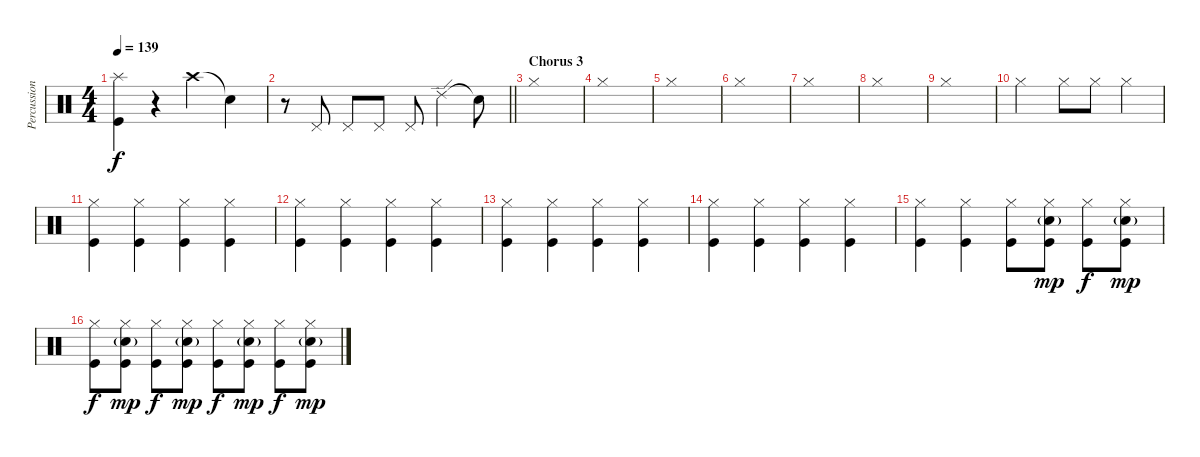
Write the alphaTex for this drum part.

\track ("Percussion" "Percussion") {instrument percussion}
\staff {score}
\articulation defaults
\ts (4 4)
\tempo 139
\clef neutral
\ks c
("Kick (hit)" "Splash (hit)").4{dy f} r.4 "Crash high (hit)".4 "Snare (hit)"{t}.4 |
\barLineRight lightlight
r.8 "Pedal Hi-Hat (hit)".8 "Pedal Hi-Hat (hit)".8 "Pedal Hi-Hat (hit)".8 "Pedal Hi-Hat (hit)".8 "Ride (edge) 2".4 "Snare (hit)"{t}.8 |
\section ("" "Chorus 3")
"Hi-Hat (closed)".1 |
"Hi-Hat (closed)".1 |
"Hi-Hat (closed)".1 |
"Hi-Hat (closed)".1 |
"Hi-Hat (closed)".1 |
"Hi-Hat (closed)".1 |
"Hi-Hat (closed)".1 |
"Hi-Hat (closed)".2 "Hi-Hat (closed)".8 "Hi-Hat (closed)".8 "Hi-Hat (closed)".4 |
("Kick (hit)" "Hi-Hat (closed)").4 ("Kick (hit)" "Hi-Hat (closed)").4 ("Kick (hit)" "Hi-Hat (closed)").4 ("Kick (hit)" "Hi-Hat (closed)").4 |
("Kick (hit)" "Hi-Hat (closed)").4 ("Kick (hit)" "Hi-Hat (closed)").4 ("Kick (hit)" "Hi-Hat (closed)").4 ("Kick (hit)" "Hi-Hat (closed)").4 |
("Kick (hit)" "Hi-Hat (closed)").4 ("Kick (hit)" "Hi-Hat (closed)").4 ("Kick (hit)" "Hi-Hat (closed)").4 ("Kick (hit)" "Hi-Hat (closed)").4 |
("Kick (hit)" "Hi-Hat (closed)").4 ("Kick (hit)" "Hi-Hat (closed)").4 ("Kick (hit)" "Hi-Hat (closed)").4 ("Kick (hit)" "Hi-Hat (closed)").4 |
("Kick (hit)" "Hi-Hat (closed)").4 ("Kick (hit)" "Hi-Hat (closed)").4 ("Kick (hit)" "Hi-Hat (closed)").8 ("Snare (hit) 2"{g} "Kick (hit)" "Hi-Hat (closed)").8{dy mp} ("Kick (hit)" "Hi-Hat (closed)").8{dy f} ("Kick (hit)" "Hi-Hat (closed)" "Snare (hit) 2"{g}).8{dy mp} |
("Kick (hit)" "Hi-Hat (closed)").8{dy f} ("Kick (hit)" "Hi-Hat (closed)" "Snare (hit) 2"{g}).8{dy mp} ("Kick (hit)" "Hi-Hat (closed)").8{dy f} ("Kick (hit)" "Hi-Hat (closed)" "Snare (hit) 2"{g}).8{dy mp} ("Kick (hit)" "Hi-Hat (closed)").8{dy f} ("Kick (hit)" "Hi-Hat (closed)" "Snare (hit) 2"{g}).8{dy mp} ("Kick (hit)" "Hi-Hat (closed)").8{dy f} ("Kick (hit)" "Hi-Hat (closed)" "Snare (hit) 2"{g}).8{dy mp}
